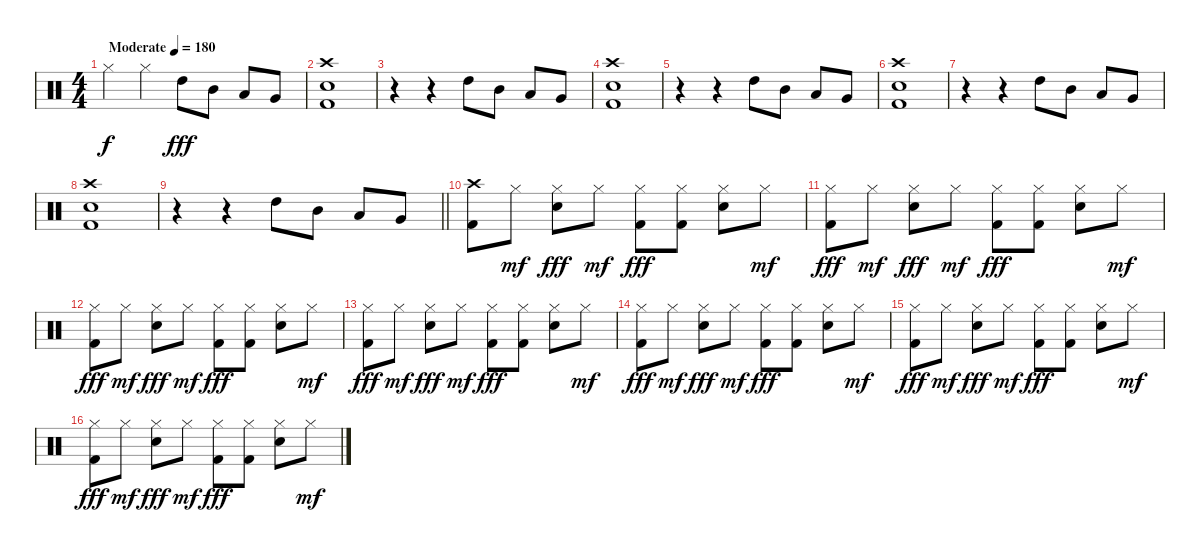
\track "" {instrument percussion}
\staff {score}
\articulation defaults
\ts (4 4)
\tempo (180 "Moderate")
\clef neutral
\ks c "Hi-Hat (closed)".4{dy f} "Hi-Hat (closed)".4 "High Tom (hit)".8{dy fff} "Mid Tom (hit)".8 "Low Tom (hit)".8 "Very Low Tom (hit)".8
|
("Crash high (hit)" "Snare (hit) 2" "Kick (hit) 2").1 |
r.4 r.4 "High Tom (hit)".8 "Mid Tom (hit)".8 "Low Tom (hit)".8 "Very Low Tom (hit)".8 |
("Crash high (hit)" "Snare (hit) 2" "Kick (hit) 2").1 |
r.4 r.4 "High Tom (hit)".8 "Mid Tom (hit)".8 "Low Tom (hit)".8 "Very Low Tom (hit)".8 |
("Crash high (hit)" "Snare (hit) 2" "Kick (hit) 2").1 |
r.4 r.4 "High Tom (hit)".8 "Mid Tom (hit)".8 "Low Tom (hit)".8 "Very Low Tom (hit)".8 |
("Crash high (hit)" "Snare (hit) 2" "Kick (hit) 2").1 |
\barLineRight lightlight
r.4 r.4 "High Tom (hit)".8 "Mid Tom (hit)".8 "Low Tom (hit)".8 "Very Low Tom (hit)".8 |
("Crash high (hit)" "Kick (hit) 2").8 "Hi-Hat (closed)".8{dy mf} ("Hi-Hat (closed)" "Snare (hit) 2").8{dy fff} "Hi-Hat (closed)".8{dy mf} ("Hi-Hat (closed)" "Kick (hit) 2").8{dy fff} ("Hi-Hat (closed)" "Kick (hit) 2").8 ("Hi-Hat (closed)" "Snare (hit) 2").8 "Hi-Hat (closed)".8{dy mf} |
("Hi-Hat (closed)" "Kick (hit) 2").8{dy fff} "Hi-Hat (closed)".8{dy mf} ("Hi-Hat (closed)" "Snare (hit) 2").8{dy fff} "Hi-Hat (closed)".8{dy mf} ("Hi-Hat (closed)" "Kick (hit) 2").8{dy fff} ("Hi-Hat (closed)" "Kick (hit) 2").8 ("Hi-Hat (closed)" "Snare (hit) 2").8 "Hi-Hat (closed)".8{dy mf} |
("Hi-Hat (closed)" "Kick (hit) 2").8{dy fff} "Hi-Hat (closed)".8{dy mf} ("Hi-Hat (closed)" "Snare (hit) 2").8{dy fff} "Hi-Hat (closed)".8{dy mf} ("Hi-Hat (closed)" "Kick (hit) 2").8{dy fff} ("Hi-Hat (closed)" "Kick (hit) 2").8 ("Hi-Hat (closed)" "Snare (hit) 2").8 "Hi-Hat (closed)".8{dy mf} |
("Hi-Hat (closed)" "Kick (hit) 2").8{dy fff} "Hi-Hat (closed)".8{dy mf} ("Hi-Hat (closed)" "Snare (hit) 2").8{dy fff} "Hi-Hat (closed)".8{dy mf} ("Hi-Hat (closed)" "Kick (hit) 2").8{dy fff} ("Hi-Hat (closed)" "Kick (hit) 2").8 ("Hi-Hat (closed)" "Snare (hit) 2").8 "Hi-Hat (closed)".8{dy mf} |
("Hi-Hat (closed)" "Kick (hit) 2").8{dy fff} "Hi-Hat (closed)".8{dy mf} ("Hi-Hat (closed)" "Snare (hit) 2").8{txt "" dy fff} "Hi-Hat (closed)".8{dy mf} ("Hi-Hat (closed)" "Kick (hit) 2").8{dy fff} ("Hi-Hat (closed)" "Kick (hit) 2").8 ("Hi-Hat (closed)" "Snare (hit) 2").8 "Hi-Hat (closed)".8{dy mf} |
("Hi-Hat (closed)" "Kick (hit) 2").8{dy fff} "Hi-Hat (closed)".8{dy mf} ("Hi-Hat (closed)" "Snare (hit) 2").8{dy fff} "Hi-Hat (closed)".8{dy mf} ("Hi-Hat (closed)" "Kick (hit) 2").8{dy fff} ("Hi-Hat (closed)" "Kick (hit) 2").8 ("Hi-Hat (closed)" "Snare (hit) 2").8 "Hi-Hat (closed)".8{dy mf} |
("Hi-Hat (closed)" "Kick (hit) 2").8{dy fff} "Hi-Hat (closed)".8{dy mf} ("Hi-Hat (closed)" "Snare (hit) 2").8{dy fff} "Hi-Hat (closed)".8{dy mf} ("Hi-Hat (closed)" "Kick (hit) 2").8{dy fff} ("Hi-Hat (closed)" "Kick (hit) 2").8 ("Hi-Hat (closed)" "Snare (hit) 2").8 "Hi-Hat (closed)".8{dy mf}
